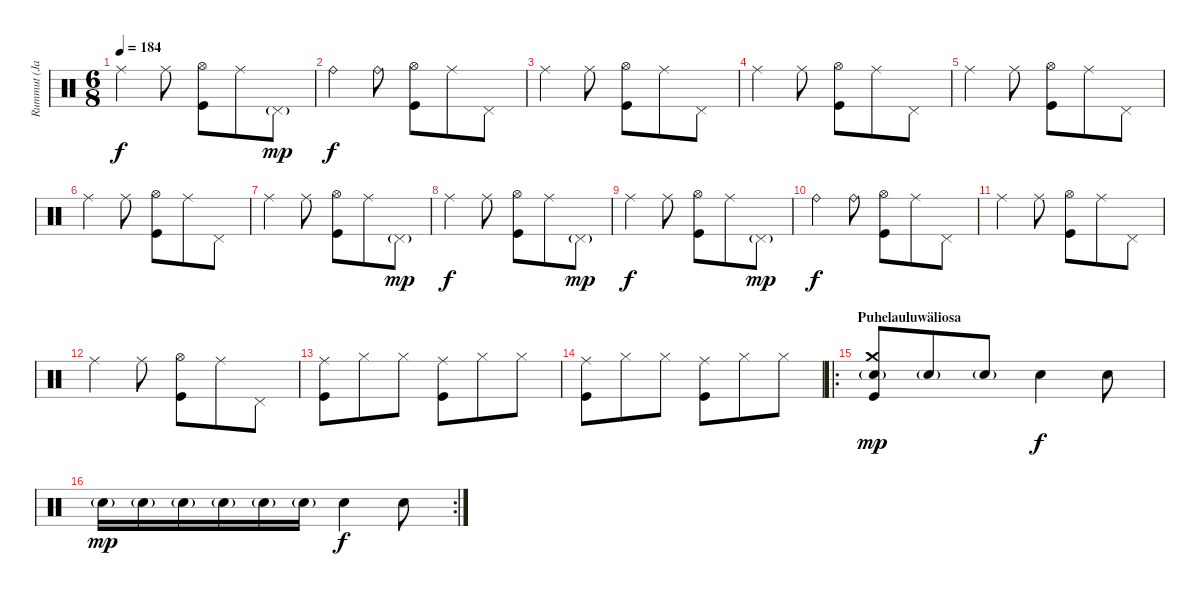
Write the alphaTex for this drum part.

\track ("Rummut (Janne)" "Rummut (Ja") {instrument percussion}
\staff {score}
\articulation defaults
\ts (6 8)
\tempo 184
\clef neutral
\ks c "Ride (middle)".4{dy f} "Ride (middle)".8
("Hi-Hat (open)" "Kick (hit)").8 "Ride (middle)".8 "Pedal Hi-Hat (hit)"{g}.8{dy mp} |
"Ride (bell)".4{dy f} "Ride (bell)".8 ("Hi-Hat (open)" "Kick (hit)").8 "Ride (middle)".8 "Pedal Hi-Hat (hit)".8 |
"Ride (middle)".4 "Ride (middle)".8 ("Hi-Hat (open)" "Kick (hit)").8 "Ride (middle)".8 "Pedal Hi-Hat (hit)".8 |
"Ride (middle)".4 "Ride (middle)".8 ("Hi-Hat (open)" "Kick (hit)").8 "Ride (middle)".8 "Pedal Hi-Hat (hit)".8 |
"Ride (middle)".4 "Ride (middle)".8 ("Hi-Hat (open)" "Kick (hit)").8 "Ride (middle)".8 "Pedal Hi-Hat (hit)".8 |
"Ride (middle)".4 "Ride (middle)".8 ("Hi-Hat (open)" "Kick (hit)").8 "Ride (middle)".8 "Pedal Hi-Hat (hit)".8 |
"Ride (middle)".4 "Ride (middle)".8 ("Hi-Hat (open)" "Kick (hit)").8 "Ride (middle)".8 "Pedal Hi-Hat (hit)"{g}.8{dy mp} |
"Ride (middle)".4{dy f} "Ride (middle)".8 ("Hi-Hat (open)" "Kick (hit)").8 "Ride (middle)".8 "Pedal Hi-Hat (hit)"{g}.8{dy mp} |
"Ride (middle)".4{dy f} "Ride (middle)".8 ("Hi-Hat (open)" "Kick (hit)").8 "Ride (middle)".8 "Pedal Hi-Hat (hit)"{g}.8{dy mp} |
"Ride (bell)".4{dy f} "Ride (bell)".8 ("Hi-Hat (open)" "Kick (hit)").8 "Ride (middle)".8 "Pedal Hi-Hat (hit)".8 |
"Ride (middle)".4 "Ride (middle)".8 ("Hi-Hat (open)" "Kick (hit)").8 "Ride (middle)".8 "Pedal Hi-Hat (hit)".8 |
"Ride (middle)".4 "Ride (middle)".8 ("Hi-Hat (open)" "Kick (hit)").8 "Ride (middle)".8 "Pedal Hi-Hat (hit)".8 |
("Ride (middle)" "Kick (hit)").8 "Hi-Hat (closed)".8 "Hi-Hat (closed)".8 ("Ride (middle)" "Kick (hit)").8 "Hi-Hat (closed)".8 "Hi-Hat (closed)".8 |
("Ride (middle)" "Kick (hit)").8 "Hi-Hat (closed)".8 "Hi-Hat (closed)".8 ("Ride (middle)" "Kick (hit)").8 "Hi-Hat (closed)".8 "Hi-Hat (closed)".8 |
\ro
\section ("" "Puhelauluwäliosa")
("Crash medium (hit)" "Snare (hit) 2"{g} "Kick (hit)").8{dy mp} "Snare (hit) 2"{g}.8 "Snare (hit) 2"{g}.8 "Snare (hit) 2".4{dy f} "Snare (hit) 2".8 |
\rc 2 "Snare (hit) 2"{g}.16{dy mp} "Snare (hit) 2"{g}.16 "Snare (hit) 2"{g}.16 "Snare (hit) 2"{g}.16 "Snare (hit) 2"{g}.16 "Snare (hit) 2"{g}.16 "Snare (hit) 2".4{dy f} "Snare (hit) 2".8
